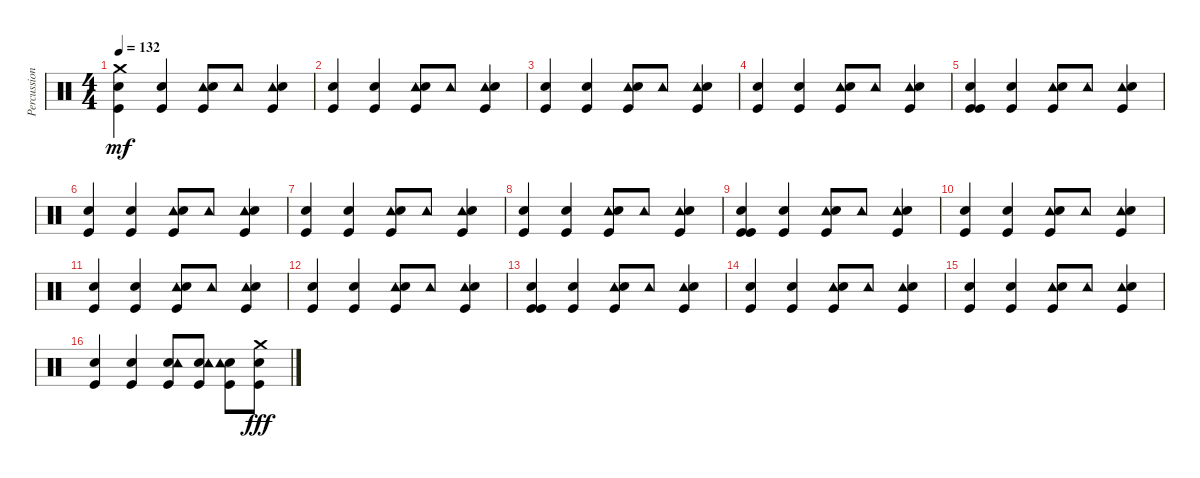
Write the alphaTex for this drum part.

\track ("Percussion" "Percussion") {instrument percussion}
\staff {score}
\articulation defaults
\ts (4 4)
\tempo 132
\clef neutral
\ks c
("Crash medium (hit)" "Kick (hit)" "Snare (hit) 2").4{dy mf} ("Snare (hit) 2" "Kick (hit)").4 ("Tambourine (hit)" "Snare (hit) 2" "Kick (hit)").8 "Tambourine (hit)".8 ("Tambourine (hit)" "Snare (hit) 2" "Kick (hit)").4 |
("Snare (hit) 2" "Kick (hit)").4 ("Kick (hit)" "Snare (hit) 2").4 ("Tambourine (hit)" "Kick (hit)" "Snare (hit) 2").8 "Tambourine (hit)".8 ("Tambourine (hit)" "Kick (hit)" "Snare (hit) 2").4 |
("Kick (hit)" "Snare (hit) 2").4 ("Kick (hit)" "Snare (hit) 2").4 ("Tambourine (hit)" "Kick (hit)" "Snare (hit) 2").8 "Tambourine (hit)".8 ("Tambourine (hit)" "Kick (hit)" "Snare (hit) 2").4 |
("Kick (hit)" "Snare (hit) 2").4 ("Snare (hit) 2" "Kick (hit)").4 ("Tambourine (hit)" "Kick (hit)" "Snare (hit) 2").8 "Tambourine (hit)".8 ("Tambourine (hit)" "Snare (hit) 2" "Kick (hit)").4 |
("Kick (hit)" "Snare (hit) 2" "Kick (hit)").4 ("Snare (hit) 2" "Kick (hit)").4 ("Tambourine (hit)" "Snare (hit) 2" "Kick (hit)").8 "Tambourine (hit)".8 ("Tambourine (hit)" "Snare (hit) 2" "Kick (hit)").4 |
("Snare (hit) 2" "Kick (hit)").4 ("Kick (hit)" "Snare (hit) 2").4 ("Tambourine (hit)" "Kick (hit)" "Snare (hit) 2").8 "Tambourine (hit)".8 ("Tambourine (hit)" "Kick (hit)" "Snare (hit) 2").4 |
("Kick (hit)" "Snare (hit) 2").4 ("Kick (hit)" "Snare (hit) 2").4 ("Tambourine (hit)" "Kick (hit)" "Snare (hit) 2").8 "Tambourine (hit)".8 ("Tambourine (hit)" "Kick (hit)" "Snare (hit) 2").4 |
("Kick (hit)" "Snare (hit) 2").4 ("Snare (hit) 2" "Kick (hit)").4 ("Tambourine (hit)" "Kick (hit)" "Snare (hit) 2").8 "Tambourine (hit)".8 ("Kick (hit)" "Tambourine (hit)" "Snare (hit) 2").4 |
("Kick (hit)" "Snare (hit) 2" "Kick (hit)").4 ("Snare (hit) 2" "Kick (hit)").4 ("Tambourine (hit)" "Snare (hit) 2" "Kick (hit)").8 "Tambourine (hit)".8 ("Tambourine (hit)" "Snare (hit) 2" "Kick (hit)").4 |
("Snare (hit) 2" "Kick (hit)").4 ("Kick (hit)" "Snare (hit) 2").4 ("Tambourine (hit)" "Kick (hit)" "Snare (hit) 2").8 "Tambourine (hit)".8 ("Tambourine (hit)" "Kick (hit)" "Snare (hit) 2").4 |
("Kick (hit)" "Snare (hit) 2").4 ("Kick (hit)" "Snare (hit) 2").4 ("Tambourine (hit)" "Kick (hit)" "Snare (hit) 2").8 "Tambourine (hit)".8 ("Tambourine (hit)" "Kick (hit)" "Snare (hit) 2").4 |
("Kick (hit)" "Snare (hit) 2").4 ("Snare (hit) 2" "Kick (hit)").4 ("Tambourine (hit)" "Kick (hit)" "Snare (hit) 2").8 "Tambourine (hit)".8 ("Tambourine (hit)" "Snare (hit) 2" "Kick (hit)").4 |
("Kick (hit)" "Snare (hit) 2" "Kick (hit)").4 ("Snare (hit) 2" "Kick (hit)").4 ("Tambourine (hit)" "Snare (hit) 2" "Kick (hit)").8 "Tambourine (hit)".8 ("Tambourine (hit)" "Snare (hit) 2" "Kick (hit)").4 |
("Snare (hit) 2" "Kick (hit)").4 ("Kick (hit)" "Snare (hit) 2").4 ("Tambourine (hit)" "Kick (hit)" "Snare (hit) 2").8 "Tambourine (hit)".8 ("Tambourine (hit)" "Kick (hit)" "Snare (hit) 2").4 |
("Kick (hit)" "Snare (hit) 2").4 ("Kick (hit)" "Snare (hit) 2").4 ("Tambourine (hit)" "Kick (hit)" "Snare (hit) 2").8 "Tambourine (hit)".8 ("Tambourine (hit)" "Kick (hit)" "Snare (hit) 2").4 |
("Kick (hit)" "Snare (hit) 2").4 ("Snare (hit) 2" "Kick (hit)").4 ("Kick (hit)" "Snare (hit) 2" "Tambourine (hit)").8 ("Kick (hit)" "Snare (hit) 2" "Tambourine (hit)").8 ("Kick (hit)" "Snare (hit) 2" "Tambourine (hit)").8 ("Kick (hit)" "Snare (hit) 2" "Crash medium (hit)").8{dy fff}
